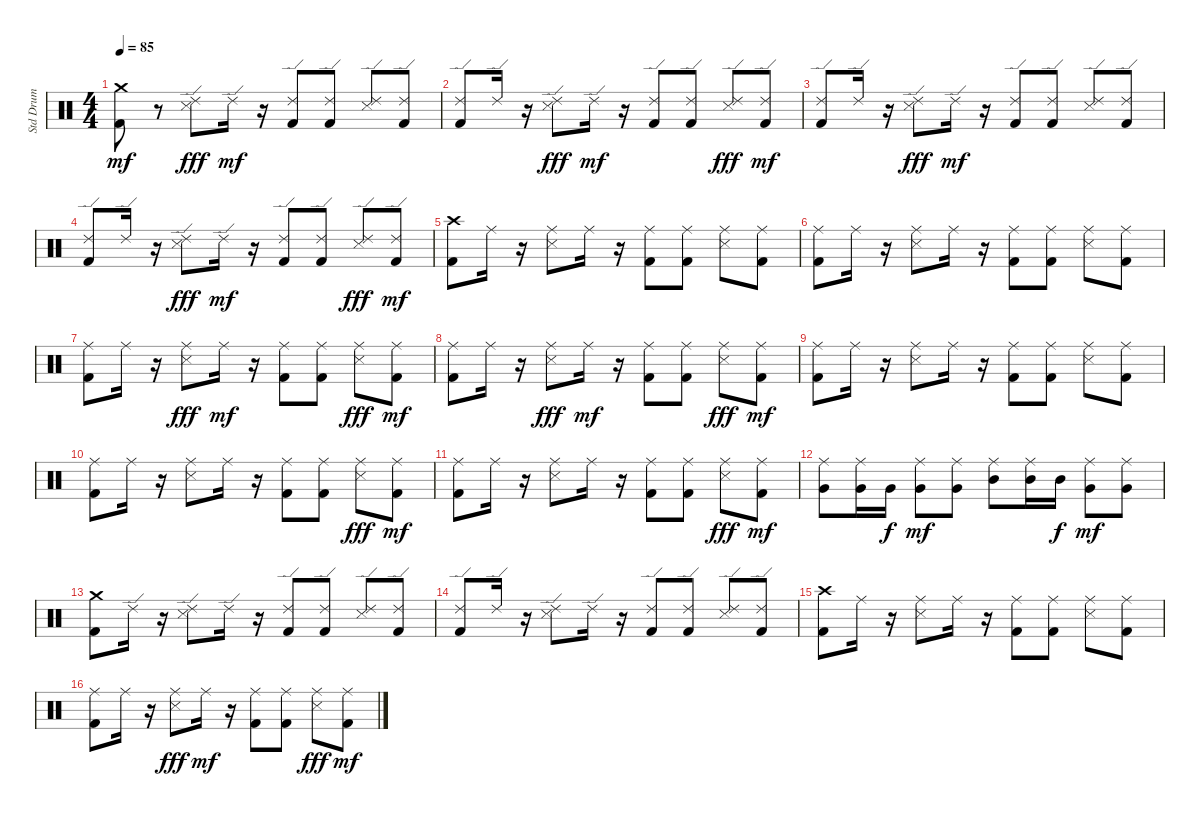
\track ("Std Drum" "Std Drum") {instrument percussion}
\staff {score}
\articulation defaults
\ts (4 4)
\tempo 85
\clef neutral
\ks c
("Kick (hit) 2" "Crash medium (hit)").8{dy mf} r.8 ("Ride (edge) 2" "Snare (side stick) 3").8{dy fff} "Ride (edge) 2".16{dy mf} r.16 ("Kick (hit) 2" "Ride (edge) 2").8 ("Ride (edge) 2" "Kick (hit) 2").8 ("Snare (side stick) 3" "Ride (edge) 2").8 ("Ride (edge) 2" "Kick (hit) 2").8 |
("Ride (edge) 2" "Kick (hit) 2").8 "Ride (edge) 2".16 r.16 ("Ride (edge) 2" "Snare (side stick) 3").8{dy fff} "Ride (edge) 2".16{dy mf} r.16 ("Kick (hit) 2" "Ride (edge) 2").8 ("Ride (edge) 2" "Kick (hit) 2").8 ("Ride (edge) 2" "Snare (side stick) 3").8{dy fff} ("Kick (hit) 2" "Ride (edge) 2").8{dy mf} |
("Ride (edge) 2" "Kick (hit) 2").8 "Ride (edge) 2".16 r.16 ("Ride (edge) 2" "Snare (side stick) 3").8{dy fff} "Ride (edge) 2".16{dy mf} r.16 ("Kick (hit) 2" "Ride (edge) 2").8 ("Ride (edge) 2" "Kick (hit) 2").8 ("Snare (side stick) 3" "Ride (edge) 2").8 ("Ride (edge) 2" "Kick (hit) 2").8 |
("Ride (edge) 2" "Kick (hit) 2").8 "Ride (edge) 2".16 r.16 ("Ride (edge) 2" "Snare (side stick) 3").8{dy fff} "Ride (edge) 2".16{dy mf} r.16 ("Kick (hit) 2" "Ride (edge) 2").8 ("Kick (hit) 2" "Ride (edge) 2").8 ("Ride (edge) 2" "Snare (side stick) 3").8{dy fff} ("Ride (edge) 2" "Kick (hit) 2").8{dy mf} |
("Crash high (hit)" "Kick (hit) 2").8 "Ride (middle)".16 r.16 ("Snare (side stick) 3" "Ride (middle)").8 "Ride (middle)".16 r.16 ("Ride (middle)" "Kick (hit) 2").8 ("Kick (hit) 2" "Ride (middle)").8 ("Snare (side stick) 3" "Ride (middle)").8 ("Kick (hit) 2" "Ride (middle)").8 |
("Ride (middle)" "Kick (hit) 2").8 "Ride (middle)".16 r.16 ("Snare (side stick) 3" "Ride (middle)").8 "Ride (middle)".16 r.16 ("Ride (middle)" "Kick (hit) 2").8 ("Kick (hit) 2" "Ride (middle)").8 ("Snare (side stick) 3" "Ride (middle)").8 ("Kick (hit) 2" "Ride (middle)").8 |
("Ride (middle)" "Kick (hit) 2").8 "Ride (middle)".16 r.16 ("Ride (middle)" "Snare (side stick) 3").8{dy fff} "Ride (middle)".16{dy mf} r.16 ("Kick (hit) 2" "Ride (middle)").8 ("Ride (middle)" "Kick (hit) 2").8 ("Ride (middle)" "Snare (side stick) 3").8{dy fff} ("Kick (hit) 2" "Ride (middle)").8{dy mf} |
("Ride (middle)" "Kick (hit) 2").8 "Ride (middle)".16 r.16 ("Ride (middle)" "Snare (side stick) 3").8{dy fff} "Ride (middle)".16{dy mf} r.16 ("Kick (hit) 2" "Ride (middle)").8 ("Ride (middle)" "Kick (hit) 2").8 ("Ride (middle)" "Snare (side stick) 3").8{dy fff} ("Kick (hit) 2" "Ride (middle)").8{dy mf} |
("Kick (hit) 2" "Ride (middle)").8 "Ride (middle)".16 r.16 ("Snare (side stick) 3" "Ride (middle)").8 "Ride (middle)".16 r.16 ("Ride (middle)" "Kick (hit) 2").8 ("Ride (middle)" "Kick (hit) 2").8 ("Snare (side stick) 3" "Ride (middle)").8 ("Kick (hit) 2" "Ride (middle)").8 |
("Kick (hit) 2" "Ride (middle)").8 "Ride (middle)".16 r.16 ("Snare (side stick) 3" "Ride (middle)").8 "Ride (middle)".16 r.16 ("Kick (hit) 2" "Ride (middle)").8 ("Ride (middle)" "Kick (hit) 2").8 ("Ride (middle)" "Snare (side stick) 3").8{dy fff} ("Kick (hit) 2" "Ride (middle)").8{dy mf} |
("Ride (middle)" "Kick (hit) 2").8 "Ride (middle)".16 r.16 ("Snare (side stick) 3" "Ride (middle)").8 "Ride (middle)".16 r.16 ("Kick (hit) 2" "Ride (middle)").8 ("Ride (middle)" "Kick (hit) 2").8 ("Ride (middle)" "Snare (side stick) 3").8{dy fff} ("Kick (hit) 2" "Ride (middle)").8{dy mf} |
("Ride (middle)" "Very Low Tom (hit)").8 ("Ride (middle)" "Very Low Tom (hit)").16 "Very Low Tom (hit)".16{dy f} ("Very Low Tom (hit)" "Ride (middle)").8{dy mf} ("Ride (middle)" "Very Low Tom (hit)").8 ("Ride (middle)" "Mid Tom (hit)").8 ("Ride (middle)" "Mid Tom (hit)").16 "Mid Tom (hit)".16{dy f} ("Ride (middle)" "Very Low Tom (hit)").8{dy mf} ("Very Low Tom (hit)" "Ride (middle)").8 |
("Kick (hit) 2" "Crash medium (hit)").8 "Ride (edge) 2".16 r.16 ("Snare (side stick) 3" "Ride (edge) 2").8 "Ride (edge) 2".16 r.16 ("Kick (hit) 2" "Ride (edge) 2").8 ("Ride (edge) 2" "Kick (hit) 2").8 ("Snare (side stick) 3" "Ride (edge) 2").8 ("Kick (hit) 2" "Ride (edge) 2").8 |
("Ride (edge) 2" "Kick (hit) 2").8 "Ride (edge) 2".16 r.16 ("Snare (side stick) 3" "Ride (edge) 2").8 "Ride (edge) 2".16 r.16 ("Ride (edge) 2" "Kick (hit) 2").8 ("Kick (hit) 2" "Ride (edge) 2").8 ("Snare (side stick) 3" "Ride (edge) 2").8 ("Ride (edge) 2" "Kick (hit) 2").8 |
("Crash high (hit)" "Kick (hit) 2").8 "Ride (middle)".16 r.16 ("Snare (side stick) 3" "Ride (middle)").8 "Ride (middle)".16 r.16 ("Kick (hit) 2" "Ride (middle)").8 ("Kick (hit) 2" "Ride (middle)").8 ("Snare (side stick) 3" "Ride (middle)").8 ("Kick (hit) 2" "Ride (middle)").8 |
("Ride (middle)" "Kick (hit) 2").8 "Ride (middle)".16 r.16 ("Ride (middle)" "Snare (side stick) 3").8{dy fff} "Ride (middle)".16{dy mf} r.16 ("Kick (hit) 2" "Ride (middle)").8 ("Ride (middle)" "Kick (hit) 2").8 ("Ride (middle)" "Snare (side stick) 3").8{dy fff} ("Kick (hit) 2" "Ride (middle)").8{dy mf}
